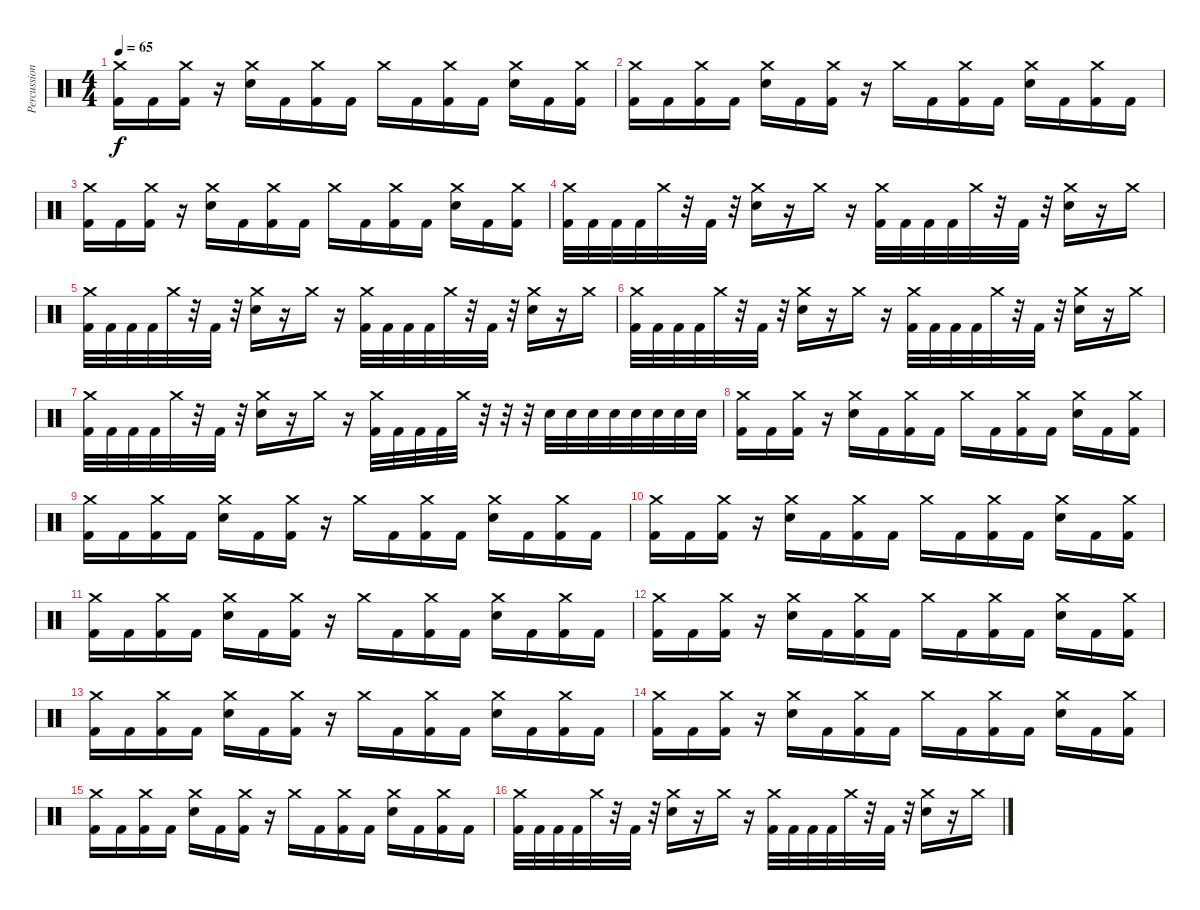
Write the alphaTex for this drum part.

\track ("Percussion" "Percussion") {instrument percussion}
\staff {score}
\articulation defaults
\ts (4 4)
\tempo 65
\clef neutral
\ks c
("Kick (hit) 2" "Crash medium (hit)").16{dy f} "Kick (hit) 2".16 ("Kick (hit) 2" "Crash medium (hit)").16 r.16 ("Snare (hit) 2" "Crash medium (hit)").16 "Kick (hit) 2".16 ("Kick (hit) 2" "Crash medium (hit)").16 "Kick (hit) 2".16 "Crash medium (hit)".16 "Kick (hit) 2".16 ("Kick (hit) 2" "Crash medium (hit)").16 "Kick (hit) 2".16 ("Snare (hit) 2" "Crash medium (hit)").16 "Kick (hit) 2".16 ("Kick (hit) 2" "Crash medium (hit)").16 |
("Kick (hit) 2" "Crash medium (hit)").16 "Kick (hit) 2".16 ("Kick (hit) 2" "Crash medium (hit)").16 "Kick (hit) 2".16 ("Snare (hit) 2" "Crash medium (hit)").16 "Kick (hit) 2".16 ("Kick (hit) 2" "Crash medium (hit)").16 r.16 "Crash medium (hit)".16 "Kick (hit) 2".16 ("Kick (hit) 2" "Crash medium (hit)").16 "Kick (hit) 2".16 ("Snare (hit) 2" "Crash medium (hit)").16 "Kick (hit) 2".16 ("Kick (hit) 2" "Crash medium (hit)").16 "Kick (hit) 2".16 |
("Kick (hit) 2" "Crash medium (hit)").16 "Kick (hit) 2".16 ("Kick (hit) 2" "Crash medium (hit)").16 r.16 ("Snare (hit) 2" "Crash medium (hit)").16 "Kick (hit) 2".16 ("Kick (hit) 2" "Crash medium (hit)").16 "Kick (hit) 2".16 "Crash medium (hit)".16 "Kick (hit) 2".16 ("Kick (hit) 2" "Crash medium (hit)").16 "Kick (hit) 2".16 ("Snare (hit) 2" "Crash medium (hit)").16 "Kick (hit) 2".16 ("Kick (hit) 2" "Crash medium (hit)").16 |
("Kick (hit) 2" "Crash medium (hit)").32 "Kick (hit) 2".32 "Kick (hit) 2".32 "Kick (hit) 2".32 "Crash medium (hit)".32 r.32 "Kick (hit) 2".32 r.32 ("Snare (hit) 2" "Crash medium (hit)").16 r.16 "Crash medium (hit)".16 r.16 ("Kick (hit) 2" "Crash medium (hit)").32 "Kick (hit) 2".32 "Kick (hit) 2".32 "Kick (hit) 2".32 "Crash medium (hit)".32 r.32 "Kick (hit) 2".32 r.32 ("Snare (hit) 2" "Crash medium (hit)").16 r.16 "Crash medium (hit)".16 |
("Kick (hit) 2" "Crash medium (hit)").32 "Kick (hit) 2".32 "Kick (hit) 2".32 "Kick (hit) 2".32 "Crash medium (hit)".32 r.32 "Kick (hit) 2".32 r.32 ("Snare (hit) 2" "Crash medium (hit)").16 r.16 "Crash medium (hit)".16 r.16 ("Kick (hit) 2" "Crash medium (hit)").32 "Kick (hit) 2".32 "Kick (hit) 2".32 "Kick (hit) 2".32 "Crash medium (hit)".32 r.32 "Kick (hit) 2".32 r.32 ("Snare (hit) 2" "Crash medium (hit)").16 r.16 "Crash medium (hit)".16 |
("Kick (hit) 2" "Crash medium (hit)").32 "Kick (hit) 2".32 "Kick (hit) 2".32 "Kick (hit) 2".32 "Crash medium (hit)".32 r.32 "Kick (hit) 2".32 r.32 ("Snare (hit) 2" "Crash medium (hit)").16 r.16 "Crash medium (hit)".16 r.16 ("Kick (hit) 2" "Crash medium (hit)").32 "Kick (hit) 2".32 "Kick (hit) 2".32 "Kick (hit) 2".32 "Crash medium (hit)".32 r.32 "Kick (hit) 2".32 r.32 ("Snare (hit) 2" "Crash medium (hit)").16 r.16 "Crash medium (hit)".16 |
("Kick (hit) 2" "Crash medium (hit)").32 "Kick (hit) 2".32 "Kick (hit) 2".32 "Kick (hit) 2".32 "Crash medium (hit)".32 r.32 "Kick (hit) 2".32 r.32 ("Snare (hit) 2" "Crash medium (hit)").16 r.16 "Crash medium (hit)".16 r.16 ("Kick (hit) 2" "Crash medium (hit)").32 "Kick (hit) 2".32 "Kick (hit) 2".32 "Kick (hit) 2".32 "Crash medium (hit)".32 r.32 r.32 r.32 "Snare (hit) 2".32 "Snare (hit) 2".32 "Snare (hit) 2".32 "Snare (hit) 2".32 "Snare (hit) 2".32 "Snare (hit) 2".32 "Snare (hit) 2".32 "Snare (hit) 2".32 |
("Kick (hit) 2" "Crash medium (hit)").16 "Kick (hit) 2".16 ("Kick (hit) 2" "Crash medium (hit)").16 r.16 ("Snare (hit) 2" "Crash medium (hit)").16 "Kick (hit) 2".16 ("Kick (hit) 2" "Crash medium (hit)").16 "Kick (hit) 2".16 "Crash medium (hit)".16 "Kick (hit) 2".16 ("Kick (hit) 2" "Crash medium (hit)").16 "Kick (hit) 2".16 ("Snare (hit) 2" "Crash medium (hit)").16 "Kick (hit) 2".16 ("Kick (hit) 2" "Crash medium (hit)").16 |
("Kick (hit) 2" "Crash medium (hit)").16 "Kick (hit) 2".16 ("Kick (hit) 2" "Crash medium (hit)").16 "Kick (hit) 2".16 ("Snare (hit) 2" "Crash medium (hit)").16 "Kick (hit) 2".16 ("Kick (hit) 2" "Crash medium (hit)").16 r.16 "Crash medium (hit)".16 "Kick (hit) 2".16 ("Kick (hit) 2" "Crash medium (hit)").16 "Kick (hit) 2".16 ("Snare (hit) 2" "Crash medium (hit)").16 "Kick (hit) 2".16 ("Kick (hit) 2" "Crash medium (hit)").16 "Kick (hit) 2".16 |
("Kick (hit) 2" "Crash medium (hit)").16 "Kick (hit) 2".16 ("Kick (hit) 2" "Crash medium (hit)").16 r.16 ("Snare (hit) 2" "Crash medium (hit)").16 "Kick (hit) 2".16 ("Kick (hit) 2" "Crash medium (hit)").16 "Kick (hit) 2".16 "Crash medium (hit)".16 "Kick (hit) 2".16 ("Kick (hit) 2" "Crash medium (hit)").16 "Kick (hit) 2".16 ("Snare (hit) 2" "Crash medium (hit)").16 "Kick (hit) 2".16 ("Kick (hit) 2" "Crash medium (hit)").16 |
("Kick (hit) 2" "Crash medium (hit)").16 "Kick (hit) 2".16 ("Kick (hit) 2" "Crash medium (hit)").16 "Kick (hit) 2".16 ("Snare (hit) 2" "Crash medium (hit)").16 "Kick (hit) 2".16 ("Kick (hit) 2" "Crash medium (hit)").16 r.16 "Crash medium (hit)".16 "Kick (hit) 2".16 ("Kick (hit) 2" "Crash medium (hit)").16 "Kick (hit) 2".16 ("Snare (hit) 2" "Crash medium (hit)").16 "Kick (hit) 2".16 ("Kick (hit) 2" "Crash medium (hit)").16 "Kick (hit) 2".16 |
("Kick (hit) 2" "Crash medium (hit)").16 "Kick (hit) 2".16 ("Kick (hit) 2" "Crash medium (hit)").16 r.16 ("Snare (hit) 2" "Crash medium (hit)").16 "Kick (hit) 2".16 ("Kick (hit) 2" "Crash medium (hit)").16 "Kick (hit) 2".16 "Crash medium (hit)".16 "Kick (hit) 2".16 ("Kick (hit) 2" "Crash medium (hit)").16 "Kick (hit) 2".16 ("Snare (hit) 2" "Crash medium (hit)").16 "Kick (hit) 2".16 ("Kick (hit) 2" "Crash medium (hit)").16 |
("Kick (hit) 2" "Crash medium (hit)").16 "Kick (hit) 2".16 ("Kick (hit) 2" "Crash medium (hit)").16 "Kick (hit) 2".16 ("Snare (hit) 2" "Crash medium (hit)").16 "Kick (hit) 2".16 ("Kick (hit) 2" "Crash medium (hit)").16 r.16 "Crash medium (hit)".16 "Kick (hit) 2".16 ("Kick (hit) 2" "Crash medium (hit)").16 "Kick (hit) 2".16 ("Snare (hit) 2" "Crash medium (hit)").16 "Kick (hit) 2".16 ("Kick (hit) 2" "Crash medium (hit)").16 "Kick (hit) 2".16 |
("Kick (hit) 2" "Crash medium (hit)").16 "Kick (hit) 2".16 ("Kick (hit) 2" "Crash medium (hit)").16 r.16 ("Snare (hit) 2" "Crash medium (hit)").16 "Kick (hit) 2".16 ("Kick (hit) 2" "Crash medium (hit)").16 "Kick (hit) 2".16 "Crash medium (hit)".16 "Kick (hit) 2".16 ("Kick (hit) 2" "Crash medium (hit)").16 "Kick (hit) 2".16 ("Snare (hit) 2" "Crash medium (hit)").16 "Kick (hit) 2".16 ("Kick (hit) 2" "Crash medium (hit)").16 |
("Kick (hit) 2" "Crash medium (hit)").16 "Kick (hit) 2".16 ("Kick (hit) 2" "Crash medium (hit)").16 "Kick (hit) 2".16 ("Snare (hit) 2" "Crash medium (hit)").16 "Kick (hit) 2".16 ("Kick (hit) 2" "Crash medium (hit)").16 r.16 "Crash medium (hit)".16 "Kick (hit) 2".16 ("Kick (hit) 2" "Crash medium (hit)").16 "Kick (hit) 2".16 ("Snare (hit) 2" "Crash medium (hit)").16 "Kick (hit) 2".16 ("Kick (hit) 2" "Crash medium (hit)").16 "Kick (hit) 2".16 |
("Kick (hit) 2" "Crash medium (hit)").32 "Kick (hit) 2".32 "Kick (hit) 2".32 "Kick (hit) 2".32 "Crash medium (hit)".32 r.32 "Kick (hit) 2".32 r.32 ("Snare (hit) 2" "Crash medium (hit)").16 r.16 "Crash medium (hit)".16 r.16 ("Kick (hit) 2" "Crash medium (hit)").32 "Kick (hit) 2".32 "Kick (hit) 2".32 "Kick (hit) 2".32 "Crash medium (hit)".32 r.32 "Kick (hit) 2".32 r.32 ("Snare (hit) 2" "Crash medium (hit)").16 r.16 "Crash medium (hit)".16
